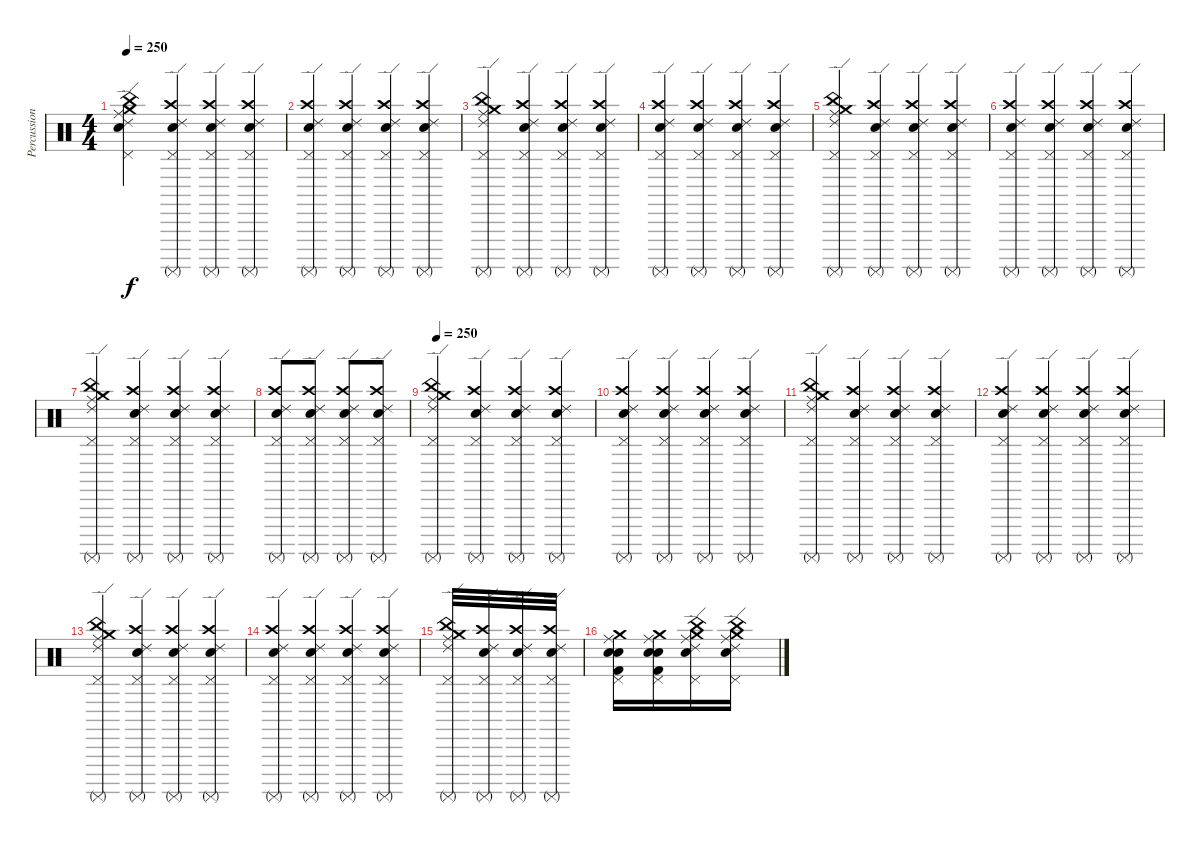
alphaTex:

\track ("Percussion" "Percussion") {instrument percussion}
\staff {score}
\articulation defaults
\ts (4 4)
\tempo 250
\clef neutral
\ks c
("Snare (hit) 2" "Ride (middle)" "Crash medium (hit)" "China (hit)" "Pedal Hi-Hat (hit)" "Ride (edge) 2").4{dy f} ("Snare (hit) 2" "Ride (edge) 2" "Crash high (hit)" "Surdo (mute)" "Pedal Hi-Hat (hit)").4 ("Snare (hit) 2" "Ride (edge) 2" "Crash high (hit)" "Surdo (mute)" "Pedal Hi-Hat (hit)").4 ("Snare (hit) 2" "Ride (edge) 2" "Crash high (hit)" "Surdo (mute)" "Pedal Hi-Hat (hit)").4 |
("Snare (hit) 2" "Ride (edge) 2" "Crash high (hit)" "Surdo (mute)" "Pedal Hi-Hat (hit)").4 ("Snare (hit) 2" "Ride (edge) 2" "Crash high (hit)" "Surdo (mute)" "Pedal Hi-Hat (hit)").4 ("Snare (hit) 2" "Ride (edge) 2" "Crash high (hit)" "Surdo (mute)" "Pedal Hi-Hat (hit)").4 ("Snare (hit) 2" "Ride (edge) 2" "Crash high (hit)" "Surdo (mute)" "Pedal Hi-Hat (hit)").4 |
("Ride (middle)" "Crash medium (hit)" "China (hit)" "Surdo (mute)" "Pedal Hi-Hat (hit)" "Ride (edge) 2").4 ("Snare (hit) 2" "Ride (edge) 2" "Crash high (hit)" "Surdo (mute)" "Pedal Hi-Hat (hit)").4 ("Snare (hit) 2" "Ride (edge) 2" "Crash high (hit)" "Surdo (mute)" "Pedal Hi-Hat (hit)").4 ("Snare (hit) 2" "Ride (edge) 2" "Crash high (hit)" "Surdo (mute)" "Pedal Hi-Hat (hit)").4 |
("Snare (hit) 2" "Ride (edge) 2" "Crash high (hit)" "Surdo (mute)" "Pedal Hi-Hat (hit)").4 ("Snare (hit) 2" "Ride (edge) 2" "Crash high (hit)" "Surdo (mute)" "Pedal Hi-Hat (hit)").4 ("Snare (hit) 2" "Ride (edge) 2" "Crash high (hit)" "Surdo (mute)" "Pedal Hi-Hat (hit)").4 ("Snare (hit) 2" "Ride (edge) 2" "Crash high (hit)" "Surdo (mute)" "Pedal Hi-Hat (hit)").4 |
("Ride (middle)" "Crash medium (hit)" "China (hit)" "Surdo (mute)" "Pedal Hi-Hat (hit)" "Ride (edge) 2").4 ("Snare (hit) 2" "Ride (edge) 2" "Crash high (hit)" "Surdo (mute)" "Pedal Hi-Hat (hit)").4 ("Snare (hit) 2" "Ride (edge) 2" "Crash high (hit)" "Surdo (mute)" "Pedal Hi-Hat (hit)").4 ("Snare (hit) 2" "Ride (edge) 2" "Crash high (hit)" "Surdo (mute)" "Pedal Hi-Hat (hit)").4 |
("Snare (hit) 2" "Ride (edge) 2" "Crash high (hit)" "Surdo (mute)" "Pedal Hi-Hat (hit)").4 ("Snare (hit) 2" "Ride (edge) 2" "Crash high (hit)" "Surdo (mute)" "Pedal Hi-Hat (hit)").4 ("Snare (hit) 2" "Ride (edge) 2" "Crash high (hit)" "Surdo (mute)" "Pedal Hi-Hat (hit)").4 ("Snare (hit) 2" "Ride (edge) 2" "Crash high (hit)" "Surdo (mute)" "Pedal Hi-Hat (hit)").4 |
("Ride (middle)" "Crash medium (hit)" "China (hit)" "Surdo (mute)" "Pedal Hi-Hat (hit)" "Ride (edge) 2").4 ("Snare (hit) 2" "Ride (edge) 2" "Crash high (hit)" "Surdo (mute)" "Pedal Hi-Hat (hit)").4 ("Snare (hit) 2" "Ride (edge) 2" "Crash high (hit)" "Surdo (mute)" "Pedal Hi-Hat (hit)").4 ("Snare (hit) 2" "Ride (edge) 2" "Crash high (hit)" "Surdo (mute)" "Pedal Hi-Hat (hit)").4 |
("Snare (hit) 2" "Ride (edge) 2" "Crash high (hit)" "Surdo (mute)" "Pedal Hi-Hat (hit)").8 ("Snare (hit) 2" "Ride (edge) 2" "Crash high (hit)" "Surdo (mute)" "Pedal Hi-Hat (hit)").8 ("Snare (hit) 2" "Ride (edge) 2" "Crash high (hit)" "Surdo (mute)" "Pedal Hi-Hat (hit)").8 ("Snare (hit) 2" "Ride (edge) 2" "Crash high (hit)" "Surdo (mute)" "Pedal Hi-Hat (hit)").8 |
\tempo 250
("Ride (middle)" "Crash medium (hit)" "China (hit)" "Surdo (mute)" "Pedal Hi-Hat (hit)" "Ride (edge) 2").4 ("Snare (hit) 2" "Ride (edge) 2" "Crash high (hit)" "Surdo (mute)" "Pedal Hi-Hat (hit)").4 ("Snare (hit) 2" "Ride (edge) 2" "Crash high (hit)" "Surdo (mute)" "Pedal Hi-Hat (hit)").4 ("Snare (hit) 2" "Ride (edge) 2" "Crash high (hit)" "Surdo (mute)" "Pedal Hi-Hat (hit)").4 |
("Snare (hit) 2" "Ride (edge) 2" "Crash high (hit)" "Surdo (mute)" "Pedal Hi-Hat (hit)").4 ("Snare (hit) 2" "Ride (edge) 2" "Crash high (hit)" "Surdo (mute)" "Pedal Hi-Hat (hit)").4 ("Snare (hit) 2" "Ride (edge) 2" "Crash high (hit)" "Surdo (mute)" "Pedal Hi-Hat (hit)").4 ("Snare (hit) 2" "Ride (edge) 2" "Crash high (hit)" "Surdo (mute)" "Pedal Hi-Hat (hit)").4 |
("Ride (middle)" "Crash medium (hit)" "China (hit)" "Surdo (mute)" "Pedal Hi-Hat (hit)" "Ride (edge) 2").4 ("Snare (hit) 2" "Ride (edge) 2" "Crash high (hit)" "Surdo (mute)" "Pedal Hi-Hat (hit)").4 ("Snare (hit) 2" "Ride (edge) 2" "Crash high (hit)" "Surdo (mute)" "Pedal Hi-Hat (hit)").4 ("Snare (hit) 2" "Ride (edge) 2" "Crash high (hit)" "Surdo (mute)" "Pedal Hi-Hat (hit)").4 |
("Snare (hit) 2" "Ride (edge) 2" "Crash high (hit)" "Surdo (mute)" "Pedal Hi-Hat (hit)").4 ("Snare (hit) 2" "Ride (edge) 2" "Crash high (hit)" "Surdo (mute)" "Pedal Hi-Hat (hit)").4 ("Snare (hit) 2" "Ride (edge) 2" "Crash high (hit)" "Surdo (mute)" "Pedal Hi-Hat (hit)").4 ("Snare (hit) 2" "Ride (edge) 2" "Crash high (hit)" "Surdo (mute)" "Pedal Hi-Hat (hit)").4 |
("Ride (middle)" "Crash medium (hit)" "China (hit)" "Surdo (mute)" "Pedal Hi-Hat (hit)" "Ride (edge) 2").4 ("Snare (hit) 2" "Ride (edge) 2" "Crash high (hit)" "Surdo (mute)" "Pedal Hi-Hat (hit)").4 ("Snare (hit) 2" "Ride (edge) 2" "Crash high (hit)" "Surdo (mute)" "Pedal Hi-Hat (hit)").4 ("Snare (hit) 2" "Ride (edge) 2" "Crash high (hit)" "Surdo (mute)" "Pedal Hi-Hat (hit)").4 |
("Snare (hit) 2" "Ride (edge) 2" "Crash high (hit)" "Surdo (mute)" "Pedal Hi-Hat (hit)").4 ("Snare (hit) 2" "Ride (edge) 2" "Crash high (hit)" "Surdo (mute)" "Pedal Hi-Hat (hit)").4 ("Snare (hit) 2" "Ride (edge) 2" "Crash high (hit)" "Surdo (mute)" "Pedal Hi-Hat (hit)").4 ("Snare (hit) 2" "Ride (edge) 2" "Crash high (hit)" "Surdo (mute)" "Pedal Hi-Hat (hit)").4 |
("Ride (middle)" "Crash medium (hit)" "China (hit)" "Surdo (mute)" "Pedal Hi-Hat (hit)" "Ride (edge) 2").32 ("Snare (hit) 2" "Ride (edge) 2" "Crash high (hit)" "Surdo (mute)" "Pedal Hi-Hat (hit)").32 ("Snare (hit) 2" "Ride (edge) 2" "Crash high (hit)" "Surdo (mute)" "Pedal Hi-Hat (hit)").32 ("Snare (hit) 2" "Ride (edge) 2" "Crash high (hit)" "Surdo (mute)" "Pedal Hi-Hat (hit)").32 |
("Snare (hit) 2" "Kick (hit) 2" "Metronome (bell)" "Ride (middle)" "Pedal Hi-Hat (hit)" "Crash medium (hit)").16 ("Snare (hit) 2" "Kick (hit) 2" "Metronome (bell)" "Ride (middle)" "Pedal Hi-Hat (hit)" "Crash medium (hit)").16 ("China (hit)" "Ride (edge) 2" "Metronome (bell)" "Ride (middle)" "Pedal Hi-Hat (hit)" "Crash medium (hit)").16 ("China (hit)" "Ride (edge) 2" "Metronome (bell)" "Ride (middle)" "Pedal Hi-Hat (hit)" "Crash medium (hit)").16
